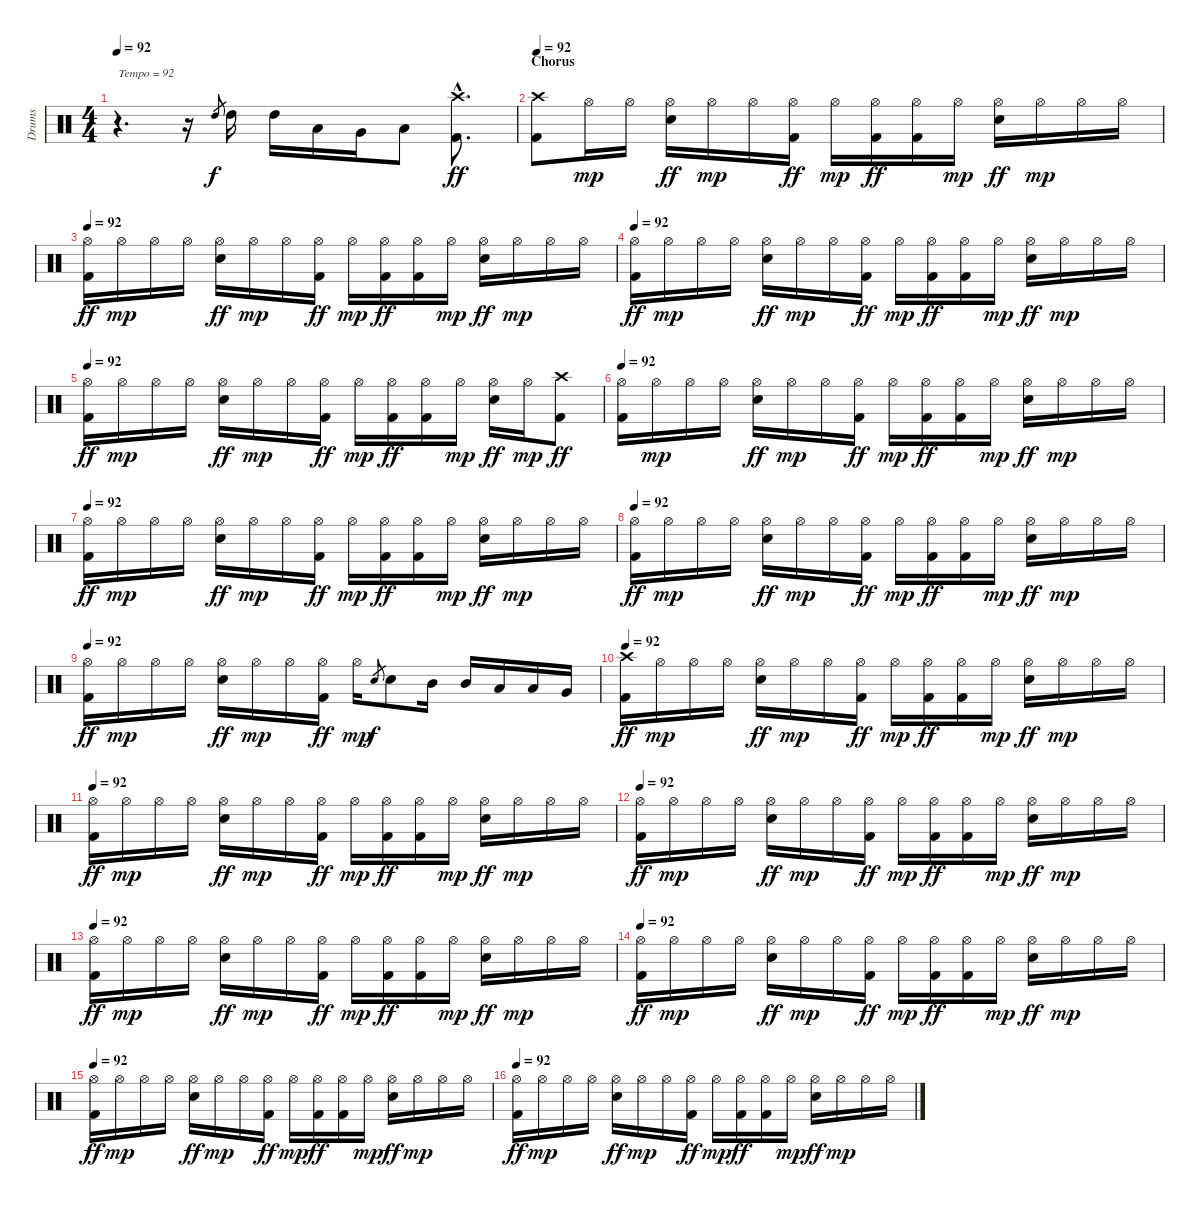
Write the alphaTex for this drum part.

\track ("Drums" "Drums") {instrument percussion}
\staff {score}
\articulation defaults
\ts (4 4)
\tempo 92
\clef neutral
\ks c
r.4{d txt "Tempo = 92" dy ff} r.16 "High Tom (hit)".8{gr dy f} "High Tom (hit)".16 "High Tom (hit)".16 "Low Tom (hit)".16 "Very Low Tom (hit)".16 "Low Floor Tom (hit)".8 ("Crash high (hit)"{hac} "Kick (hit) 2"{hac}).8{d dy ff} |
\section ("" "Chorus")
\tempo 92
("Crash high (hit)" "Kick (hit) 2").8 "Hi-Hat (open)".16{dy mp} "Hi-Hat (open)".16 ("Hi-Hat (open)" "Electric Snare (hit)").16{dy ff} "Hi-Hat (open)".16{dy mp} "Hi-Hat (open)".16 ("Hi-Hat (open)" "Kick (hit) 2").16{dy ff} "Hi-Hat (open)".16{dy mp} ("Hi-Hat (open)" "Kick (hit) 2").16{dy ff} ("Hi-Hat (open)" "Kick (hit) 2").16 "Hi-Hat (open)".16{dy mp} ("Hi-Hat (open)" "Electric Snare (hit)").16{dy ff} "Hi-Hat (open)".16{dy mp} "Hi-Hat (open)".16 "Hi-Hat (open)".16 |
\tempo 92
("Hi-Hat (open)" "Kick (hit) 2").16{dy ff} "Hi-Hat (open)".16{dy mp} "Hi-Hat (open)".16 "Hi-Hat (open)".16 ("Hi-Hat (open)" "Electric Snare (hit)").16{dy ff} "Hi-Hat (open)".16{dy mp} "Hi-Hat (open)".16 ("Hi-Hat (open)" "Kick (hit) 2").16{dy ff} "Hi-Hat (open)".16{dy mp} ("Hi-Hat (open)" "Kick (hit) 2").16{dy ff} ("Hi-Hat (open)" "Kick (hit) 2").16 "Hi-Hat (open)".16{dy mp} ("Hi-Hat (open)" "Electric Snare (hit)").16{dy ff} "Hi-Hat (open)".16{dy mp} "Hi-Hat (open)".16 "Hi-Hat (open)".16 |
\tempo 92
("Hi-Hat (open)" "Kick (hit) 2").16{dy ff} "Hi-Hat (open)".16{dy mp} "Hi-Hat (open)".16 "Hi-Hat (open)".16 ("Hi-Hat (open)" "Electric Snare (hit)").16{dy ff} "Hi-Hat (open)".16{dy mp} "Hi-Hat (open)".16 ("Hi-Hat (open)" "Kick (hit) 2").16{dy ff} "Hi-Hat (open)".16{dy mp} ("Hi-Hat (open)" "Kick (hit) 2").16{dy ff} ("Hi-Hat (open)" "Kick (hit) 2").16 "Hi-Hat (open)".16{dy mp} ("Hi-Hat (open)" "Electric Snare (hit)").16{dy ff} "Hi-Hat (open)".16{dy mp} "Hi-Hat (open)".16 "Hi-Hat (open)".16 |
\tempo 92
("Hi-Hat (open)" "Kick (hit) 2").16{dy ff} "Hi-Hat (open)".16{dy mp} "Hi-Hat (open)".16 "Hi-Hat (open)".16 ("Hi-Hat (open)" "Electric Snare (hit)").16{dy ff} "Hi-Hat (open)".16{dy mp} "Hi-Hat (open)".16 ("Hi-Hat (open)" "Kick (hit) 2").16{dy ff} "Hi-Hat (open)".16{dy mp} ("Hi-Hat (open)" "Kick (hit) 2").16{dy ff} ("Hi-Hat (open)" "Kick (hit) 2").16 "Hi-Hat (open)".16{dy mp} ("Hi-Hat (open)" "Electric Snare (hit)").16{dy ff} "Hi-Hat (open)".16{dy mp} ("Crash high (hit)" "Kick (hit) 2").8{dy ff} |
\tempo 92
("Hi-Hat (open)" "Kick (hit) 2").16 "Hi-Hat (open)".16{dy mp} "Hi-Hat (open)".16 "Hi-Hat (open)".16 ("Hi-Hat (open)" "Electric Snare (hit)").16{dy ff} "Hi-Hat (open)".16{dy mp} "Hi-Hat (open)".16 ("Hi-Hat (open)" "Kick (hit) 2").16{dy ff} "Hi-Hat (open)".16{dy mp} ("Hi-Hat (open)" "Kick (hit) 2").16{dy ff} ("Hi-Hat (open)" "Kick (hit) 2").16 "Hi-Hat (open)".16{dy mp} ("Hi-Hat (open)" "Electric Snare (hit)").16{dy ff} "Hi-Hat (open)".16{dy mp} "Hi-Hat (open)".16 "Hi-Hat (open)".16 |
\tempo 92
("Hi-Hat (open)" "Kick (hit) 2").16{dy ff} "Hi-Hat (open)".16{dy mp} "Hi-Hat (open)".16 "Hi-Hat (open)".16 ("Hi-Hat (open)" "Electric Snare (hit)").16{dy ff} "Hi-Hat (open)".16{dy mp} "Hi-Hat (open)".16 ("Hi-Hat (open)" "Kick (hit) 2").16{dy ff} "Hi-Hat (open)".16{dy mp} ("Hi-Hat (open)" "Kick (hit) 2").16{dy ff} ("Hi-Hat (open)" "Kick (hit) 2").16 "Hi-Hat (open)".16{dy mp} ("Hi-Hat (open)" "Electric Snare (hit)").16{dy ff} "Hi-Hat (open)".16{dy mp} "Hi-Hat (open)".16 "Hi-Hat (open)".16 |
\tempo 92
("Hi-Hat (open)" "Kick (hit) 2").16{dy ff} "Hi-Hat (open)".16{dy mp} "Hi-Hat (open)".16 "Hi-Hat (open)".16 ("Hi-Hat (open)" "Electric Snare (hit)").16{dy ff} "Hi-Hat (open)".16{dy mp} "Hi-Hat (open)".16 ("Hi-Hat (open)" "Kick (hit) 2").16{dy ff} "Hi-Hat (open)".16{dy mp} ("Hi-Hat (open)" "Kick (hit) 2").16{dy ff} ("Hi-Hat (open)" "Kick (hit) 2").16 "Hi-Hat (open)".16{dy mp} ("Hi-Hat (open)" "Electric Snare (hit)").16{dy ff} "Hi-Hat (open)".16{dy mp} "Hi-Hat (open)".16 "Hi-Hat (open)".16 |
\tempo 92
("Hi-Hat (open)" "Kick (hit) 2").16{dy ff} "Hi-Hat (open)".16{dy mp} "Hi-Hat (open)".16 "Hi-Hat (open)".16 ("Hi-Hat (open)" "Electric Snare (hit)").16{dy ff} "Hi-Hat (open)".16{dy mp} "Hi-Hat (open)".16 ("Hi-Hat (open)" "Kick (hit) 2").16{dy ff} "Hi-Hat (open)".16{dy mp} "Electric Snare (hit)".8{gr dy f} "Electric Snare (hit)".8 "Mid Tom (hit)".16 "Mid Tom (hit)".16 "Low Tom (hit)".16 "Low Tom (hit)".16 "Very Low Tom (hit)".16 |
\tempo 92
("Crash high (hit)" "Kick (hit) 2").16{dy ff} "Hi-Hat (open)".16{dy mp} "Hi-Hat (open)".16 "Hi-Hat (open)".16 ("Hi-Hat (open)" "Electric Snare (hit)").16{dy ff} "Hi-Hat (open)".16{dy mp} "Hi-Hat (open)".16 ("Hi-Hat (open)" "Kick (hit) 2").16{dy ff} "Hi-Hat (open)".16{dy mp} ("Hi-Hat (open)" "Kick (hit) 2").16{dy ff} ("Hi-Hat (open)" "Kick (hit) 2").16 "Hi-Hat (open)".16{dy mp} ("Hi-Hat (open)" "Electric Snare (hit)").16{dy ff} "Hi-Hat (open)".16{dy mp} "Hi-Hat (open)".16 "Hi-Hat (open)".16 |
\tempo 92
("Hi-Hat (open)" "Kick (hit) 2").16{dy ff} "Hi-Hat (open)".16{dy mp} "Hi-Hat (open)".16 "Hi-Hat (open)".16 ("Hi-Hat (open)" "Electric Snare (hit)").16{dy ff} "Hi-Hat (open)".16{dy mp} "Hi-Hat (open)".16 ("Hi-Hat (open)" "Kick (hit) 2").16{dy ff} "Hi-Hat (open)".16{dy mp} ("Hi-Hat (open)" "Kick (hit) 2").16{dy ff} ("Hi-Hat (open)" "Kick (hit) 2").16 "Hi-Hat (open)".16{dy mp} ("Hi-Hat (open)" "Electric Snare (hit)").16{dy ff} "Hi-Hat (open)".16{dy mp} "Hi-Hat (open)".16 "Hi-Hat (open)".16 |
\tempo 92
("Hi-Hat (open)" "Kick (hit) 2").16{dy ff} "Hi-Hat (open)".16{dy mp} "Hi-Hat (open)".16 "Hi-Hat (open)".16 ("Hi-Hat (open)" "Electric Snare (hit)").16{dy ff} "Hi-Hat (open)".16{dy mp} "Hi-Hat (open)".16 ("Hi-Hat (open)" "Kick (hit) 2").16{dy ff} "Hi-Hat (open)".16{dy mp} ("Hi-Hat (open)" "Kick (hit) 2").16{dy ff} ("Hi-Hat (open)" "Kick (hit) 2").16 "Hi-Hat (open)".16{dy mp} ("Hi-Hat (open)" "Electric Snare (hit)").16{dy ff} "Hi-Hat (open)".16{dy mp} "Hi-Hat (open)".16 "Hi-Hat (open)".16 |
\tempo 92
("Hi-Hat (open)" "Kick (hit) 2").16{dy ff} "Hi-Hat (open)".16{dy mp} "Hi-Hat (open)".16 "Hi-Hat (open)".16 ("Hi-Hat (open)" "Electric Snare (hit)").16{dy ff} "Hi-Hat (open)".16{dy mp} "Hi-Hat (open)".16 ("Hi-Hat (open)" "Kick (hit) 2").16{dy ff} "Hi-Hat (open)".16{dy mp} ("Hi-Hat (open)" "Kick (hit) 2").16{dy ff} ("Hi-Hat (open)" "Kick (hit) 2").16 "Hi-Hat (open)".16{dy mp} ("Hi-Hat (open)" "Electric Snare (hit)").16{dy ff} "Hi-Hat (open)".16{dy mp} "Hi-Hat (open)".16 "Hi-Hat (open)".16 |
\tempo 92
("Hi-Hat (open)" "Kick (hit) 2").16{dy ff} "Hi-Hat (open)".16{dy mp} "Hi-Hat (open)".16 "Hi-Hat (open)".16 ("Hi-Hat (open)" "Electric Snare (hit)").16{dy ff} "Hi-Hat (open)".16{dy mp} "Hi-Hat (open)".16 ("Hi-Hat (open)" "Kick (hit) 2").16{dy ff} "Hi-Hat (open)".16{dy mp} ("Hi-Hat (open)" "Kick (hit) 2").16{dy ff} ("Hi-Hat (open)" "Kick (hit) 2").16 "Hi-Hat (open)".16{dy mp} ("Hi-Hat (open)" "Electric Snare (hit)").16{dy ff} "Hi-Hat (open)".16{dy mp} "Hi-Hat (open)".16 "Hi-Hat (open)".16 |
\tempo 92
("Hi-Hat (open)" "Kick (hit) 2").16{dy ff} "Hi-Hat (open)".16{dy mp} "Hi-Hat (open)".16 "Hi-Hat (open)".16 ("Hi-Hat (open)" "Electric Snare (hit)").16{dy ff} "Hi-Hat (open)".16{dy mp} "Hi-Hat (open)".16 ("Hi-Hat (open)" "Kick (hit) 2").16{dy ff} "Hi-Hat (open)".16{dy mp} ("Hi-Hat (open)" "Kick (hit) 2").16{dy ff} ("Hi-Hat (open)" "Kick (hit) 2").16 "Hi-Hat (open)".16{dy mp} ("Hi-Hat (open)" "Electric Snare (hit)").16{dy ff} "Hi-Hat (open)".16{dy mp} "Hi-Hat (open)".16 "Hi-Hat (open)".16 |
\tempo 92
("Hi-Hat (open)" "Kick (hit) 2").16{dy ff} "Hi-Hat (open)".16{dy mp} "Hi-Hat (open)".16 "Hi-Hat (open)".16 ("Hi-Hat (open)" "Electric Snare (hit)").16{dy ff} "Hi-Hat (open)".16{dy mp} "Hi-Hat (open)".16 ("Hi-Hat (open)" "Kick (hit) 2").16{dy ff} "Hi-Hat (open)".16{dy mp} ("Hi-Hat (open)" "Kick (hit) 2").16{dy ff} ("Hi-Hat (open)" "Kick (hit) 2").16 "Hi-Hat (open)".16{dy mp} ("Hi-Hat (open)" "Electric Snare (hit)").16{dy ff} "Hi-Hat (open)".16{dy mp} "Hi-Hat (open)".16 "Hi-Hat (open)".16
